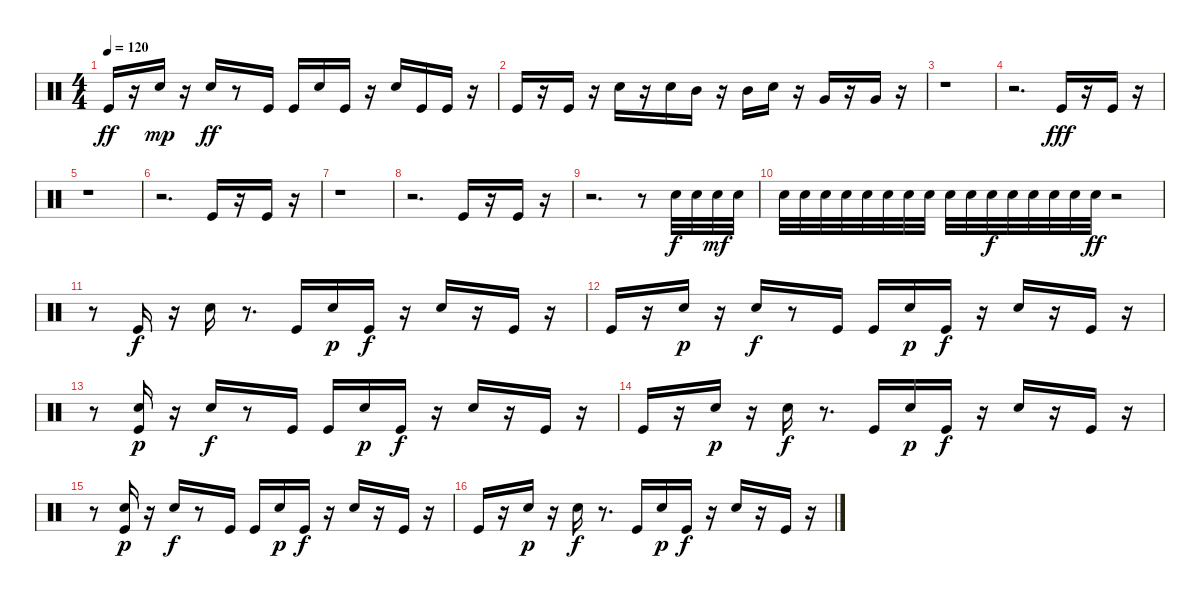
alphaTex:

\track "" {instrument percussion}
\staff {score}
\articulation defaults
\ts (4 4)
\tempo 120
\clef neutral
\ks c "Kick (hit)".16{dy ff}
r.16 "Electric Snare (hit)".16{dy mp} r.16 "Electric Snare (hit)".16{dy ff} r.8 "Kick (hit)".16 "Kick (hit)".16 "Electric Snare (hit)".16 "Kick (hit)".16 r.16 "Electric Snare (hit)".16 "Kick (hit)".16 "Kick (hit)".16 r.16 |
"Kick (hit)".16 r.16 "Kick (hit)".16 r.16 "Electric Snare (hit)".16 r.16 "Electric Snare (hit)".16 "Mid Tom (hit)".16 r.16 "Mid Tom (hit)".16 "Electric Snare (hit)".16 r.16 "Very Low Tom (hit)".16 r.16 "Very Low Tom (hit)".16 r.16 |
r.1 |
r.2{d} "Kick (hit)".16{dy fff} r.16 "Kick (hit)".16 r.16 |
r.1 |
r.2{d} "Kick (hit)".16 r.16 "Kick (hit)".16 r.16 |
r.1 |
r.2{d} "Kick (hit)".16 r.16 "Kick (hit)".16 r.16 |
r.2{d} r.8 "Electric Snare (hit)".32{dy f} "Electric Snare (hit)".32 "Electric Snare (hit)".32{dy mf} "Electric Snare (hit)".32 |
"Electric Snare (hit)".32 "Electric Snare (hit)".32 "Electric Snare (hit)".32 "Electric Snare (hit)".32 "Electric Snare (hit)".32 "Electric Snare (hit)".32 "Electric Snare (hit)".32 "Electric Snare (hit)".32 "Electric Snare (hit)".32 "Electric Snare (hit)".32 "Electric Snare (hit)".32{dy f} "Electric Snare (hit)".32 "Electric Snare (hit)".32 "Electric Snare (hit)".32 "Electric Snare (hit)".32 "Electric Snare (hit)".32{dy ff} r.2 |
r.8 "Kick (hit)".16{dy f} r.16 "Electric Snare (hit)".16 r.8{d} "Kick (hit)".16 "Electric Snare (hit)".16{dy p} "Kick (hit)".16{dy f} r.16 "Electric Snare (hit)".16 r.16 "Kick (hit)".16 r.16 |
"Kick (hit)".16 r.16 "Electric Snare (hit)".16{dy p} r.16 "Electric Snare (hit)".16{dy f} r.8 "Kick (hit)".16 "Kick (hit)".16 "Electric Snare (hit)".16{dy p} "Kick (hit)".16{dy f} r.16 "Electric Snare (hit)".16 r.16 "Kick (hit)".16 r.16 |
r.8 ("Electric Snare (hit)" "Kick (hit)").16{dy p} r.16 "Electric Snare (hit)".16{dy f} r.8 "Kick (hit)".16 "Kick (hit)".16 "Electric Snare (hit)".16{dy p} "Kick (hit)".16{dy f} r.16 "Electric Snare (hit)".16 r.16 "Kick (hit)".16 r.16 |
"Kick (hit)".16 r.16 "Electric Snare (hit)".16{dy p} r.16 "Electric Snare (hit)".16{dy f} r.8{d} "Kick (hit)".16 "Electric Snare (hit)".16{dy p} "Kick (hit)".16{dy f} r.16 "Electric Snare (hit)".16 r.16 "Kick (hit)".16 r.16 |
r.8 ("Electric Snare (hit)" "Kick (hit)").16{dy p} r.16 "Electric Snare (hit)".16{dy f} r.8 "Kick (hit)".16 "Kick (hit)".16 "Electric Snare (hit)".16{dy p} "Kick (hit)".16{dy f} r.16 "Electric Snare (hit)".16 r.16 "Kick (hit)".16 r.16 |
"Kick (hit)".16 r.16 "Electric Snare (hit)".16{dy p} r.16 "Electric Snare (hit)".16{dy f} r.8{d} "Kick (hit)".16 "Electric Snare (hit)".16{dy p} "Kick (hit)".16{dy f} r.16 "Electric Snare (hit)".16 r.16 "Kick (hit)".16 r.16
